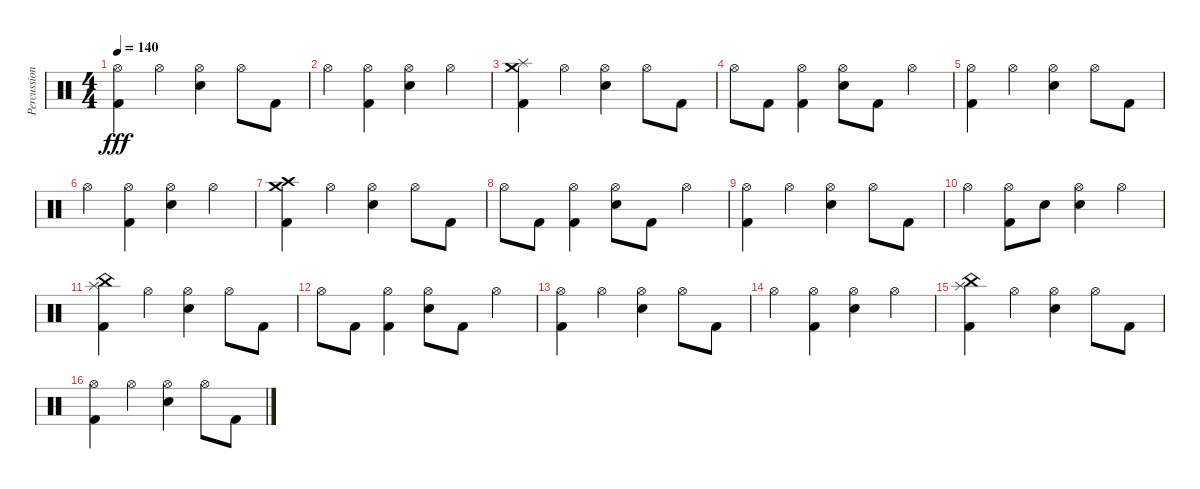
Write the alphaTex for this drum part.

\track ("Percussion" "Percussion") {instrument percussion}
\staff {score}
\articulation defaults
\ts (4 4)
\tempo 140
\clef neutral
\ks c
("Hi-Hat (open)" "Kick (hit) 2").4{dy fff} "Hi-Hat (open)".4 ("Hi-Hat (open)" "Electric Snare (hit)").4 "Hi-Hat (open)".8 "Kick (hit) 2".8 |
"Hi-Hat (open)".4 ("Hi-Hat (open)" "Kick (hit) 2").4 ("Hi-Hat (open)" "Electric Snare (hit)").4 "Hi-Hat (open)".4 |
("Crash medium (hit)" "Splash (hit)" "Kick (hit) 2").4 "Hi-Hat (open)".4 ("Hi-Hat (open)" "Electric Snare (hit)").4 "Hi-Hat (open)".8 "Kick (hit) 2".8 |
"Hi-Hat (open)".8 "Kick (hit) 2".8 ("Hi-Hat (open)" "Kick (hit) 2").4 ("Hi-Hat (open)" "Electric Snare (hit)").8 "Kick (hit) 2".8 "Hi-Hat (open)".4 |
("Hi-Hat (open)" "Kick (hit) 2").4 "Hi-Hat (open)".4 ("Hi-Hat (open)" "Electric Snare (hit)").4 "Hi-Hat (open)".8 "Kick (hit) 2".8 |
"Hi-Hat (open)".4 ("Hi-Hat (open)" "Kick (hit) 2").4 ("Hi-Hat (open)" "Electric Snare (hit)").4 "Hi-Hat (open)".4 |
("Crash medium (hit)" "Crash high (hit)" "Kick (hit) 2").4 "Hi-Hat (open)".4 ("Hi-Hat (open)" "Electric Snare (hit)").4 "Hi-Hat (open)".8 "Kick (hit) 2".8 |
"Hi-Hat (open)".8 "Kick (hit) 2".8 ("Hi-Hat (open)" "Kick (hit) 2").4 ("Hi-Hat (open)" "Electric Snare (hit)").8 "Kick (hit) 2".8 "Hi-Hat (open)".4 |
("Hi-Hat (open)" "Kick (hit) 2").4 "Hi-Hat (open)".4 ("Hi-Hat (open)" "Electric Snare (hit)").4 "Hi-Hat (open)".8 "Kick (hit) 2".8 |
"Hi-Hat (open)".4 ("Hi-Hat (open)" "Kick (hit) 2").8 "Electric Snare (hit)".8 ("Hi-Hat (open)" "Electric Snare (hit)").4 "Hi-Hat (open)".4 |
("Splash (hit)" "China (hit)" "Kick (hit) 2").4{volume 15} "Hi-Hat (open)".4 ("Hi-Hat (open)" "Electric Snare (hit)").4 "Hi-Hat (open)".8 "Kick (hit) 2".8 |
"Hi-Hat (open)".8 "Kick (hit) 2".8 ("Hi-Hat (open)" "Kick (hit) 2").4 ("Hi-Hat (open)" "Electric Snare (hit)").8 "Kick (hit) 2".8 "Hi-Hat (open)".4 |
("Hi-Hat (open)" "Kick (hit) 2").4 "Hi-Hat (open)".4 ("Hi-Hat (open)" "Electric Snare (hit)").4 "Hi-Hat (open)".8 "Kick (hit) 2".8 |
"Hi-Hat (open)".4 ("Hi-Hat (open)" "Kick (hit) 2").4 ("Hi-Hat (open)" "Electric Snare (hit)").4 "Hi-Hat (open)".4 |
("Splash (hit)" "China (hit)" "Kick (hit) 2").4{volume 15} "Hi-Hat (open)".4 ("Hi-Hat (open)" "Electric Snare (hit)").4 "Hi-Hat (open)".8 "Kick (hit) 2".8 |
("Hi-Hat (open)" "Kick (hit) 2").4 "Hi-Hat (open)".4 ("Hi-Hat (open)" "Electric Snare (hit)").4 "Hi-Hat (open)".8 "Kick (hit) 2".8
